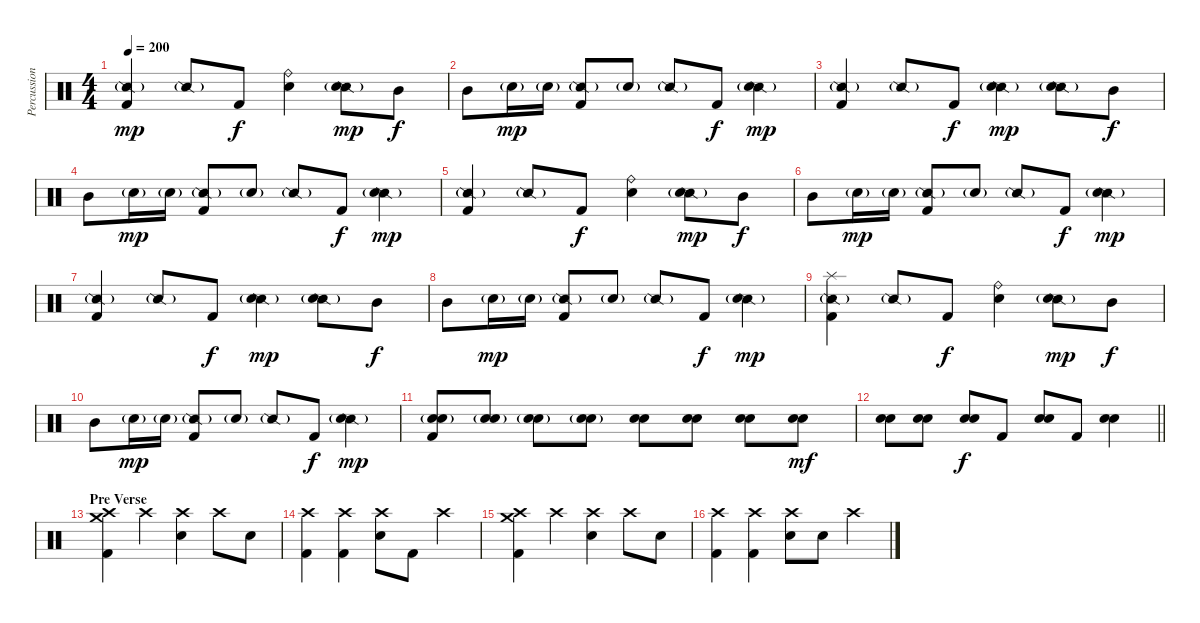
\track ("Percussion" "Percussion") {instrument percussion}
\staff {score}
\articulation defaults
\ts (4 4)
\tempo 200
\clef neutral
\ks c
("Snare (side stick) 2"{g} "Kick (hit) 2").4{dy mp} "Snare (side stick) 2"{g}.8 "Kick (hit) 2".8{dy f} ("Ride (bell)" "Electric Snare (hit)").4 ("Snare (side stick) 2"{g} "Electric Snare (hit)").8{dy mp} "Mid Tom (hit)".8{dy f} |
"Mid Tom (hit)".8 "Electric Snare (hit)"{g}.16{dy mp} "Electric Snare (hit)"{g}.16 ("Snare (side stick) 2"{g} "Kick (hit) 2").8 "Electric Snare (hit)"{g}.8 "Snare (side stick) 2"{g}.8 "Kick (hit) 2".8{dy f} ("Snare (side stick) 2"{g} "Electric Snare (hit)").4{dy mp} |
("Snare (side stick) 2"{g} "Kick (hit) 2").4 "Snare (side stick) 2"{g}.8 "Kick (hit) 2".8{dy f} ("Snare (side stick) 2"{g} "Electric Snare (hit)").4{dy mp} ("Snare (side stick) 2"{g} "Electric Snare (hit)").8 "Mid Tom (hit)".8{dy f} |
"Mid Tom (hit)".8 "Electric Snare (hit)"{g}.16{dy mp} "Electric Snare (hit)"{g}.16 ("Snare (side stick) 2"{g} "Kick (hit) 2").8 "Electric Snare (hit)"{g}.8 "Snare (side stick) 2"{g}.8 "Kick (hit) 2".8{dy f} ("Snare (side stick) 2"{g} "Electric Snare (hit)").4{dy mp} |
("Snare (side stick) 2"{g} "Kick (hit) 2").4 "Snare (side stick) 2"{g}.8 "Kick (hit) 2".8{dy f} ("Ride (bell)" "Electric Snare (hit)").4 ("Snare (side stick) 2"{g} "Electric Snare (hit)").8{dy mp} "Mid Tom (hit)".8{dy f} |
"Mid Tom (hit)".8 "Electric Snare (hit)"{g}.16{dy mp} "Electric Snare (hit)"{g}.16 ("Snare (side stick) 2"{g} "Kick (hit) 2").8 "Electric Snare (hit)"{g}.8 "Snare (side stick) 2"{g}.8 "Kick (hit) 2".8{dy f} ("Snare (side stick) 2"{g} "Electric Snare (hit)").4{dy mp} |
("Snare (side stick) 2"{g} "Kick (hit) 2").4 "Snare (side stick) 2"{g}.8 "Kick (hit) 2".8{dy f} ("Snare (side stick) 2"{g} "Electric Snare (hit)").4{dy mp} ("Snare (side stick) 2"{g} "Electric Snare (hit)").8 "Mid Tom (hit)".8{dy f} |
"Mid Tom (hit)".8 "Electric Snare (hit)"{g}.16{dy mp} "Electric Snare (hit)"{g}.16 ("Snare (side stick) 2"{g} "Kick (hit) 2").8 "Electric Snare (hit)"{g}.8 "Snare (side stick) 2"{g}.8 "Kick (hit) 2".8{dy f} ("Snare (side stick) 2"{g} "Electric Snare (hit)").4{dy mp} |
("Snare (side stick) 2"{g} "Splash (hit)" "Kick (hit) 2").4 "Snare (side stick) 2"{g}.8 "Kick (hit) 2".8{dy f} ("Ride (bell)" "Electric Snare (hit)").4 ("Snare (side stick) 2"{g} "Electric Snare (hit)").8{dy mp} "Mid Tom (hit)".8{dy f} |
"Mid Tom (hit)".8 "Electric Snare (hit)"{g}.16{dy mp} "Electric Snare (hit)"{g}.16 ("Snare (side stick) 2"{g} "Kick (hit) 2").8 "Electric Snare (hit)"{g}.8 "Snare (side stick) 2"{g}.8 "Kick (hit) 2".8{dy f} ("Snare (side stick) 2"{g} "Electric Snare (hit)").4{dy mp} |
("Electric Snare (hit)"{g} "Electric Snare (hit)"{g} "Kick (hit) 2").8 ("Electric Snare (hit)"{g} "Electric Snare (hit)"{g}).8 ("Electric Snare (hit)"{g} "Electric Snare (hit)"{g}).8 ("Electric Snare (hit)"{g} "Electric Snare (hit)"{g}).8 ("Electric Snare (hit)" "Electric Snare (hit)").8 ("Electric Snare (hit)" "Electric Snare (hit)").8 ("Electric Snare (hit)" "Electric Snare (hit)").8 ("Electric Snare (hit)" "Electric Snare (hit)").8{dy mf} |
\barLineRight lightlight
("Electric Snare (hit)" "Electric Snare (hit)").8 ("Electric Snare (hit)" "Electric Snare (hit)").8 ("Electric Snare (hit)" "Electric Snare (hit)").8{dy f} "Kick (hit) 2".8 ("Electric Snare (hit)" "Electric Snare (hit)").8 "Kick (hit) 2".8 ("Electric Snare (hit)" "Electric Snare (hit)").4 |
\section ("" "Pre Verse")
("Crash medium (hit)" "Crash high (hit)" "Kick (hit) 2").4 "Crash high (hit)".4 ("Crash high (hit)" "Electric Snare (hit)").4 "Crash high (hit)".8 "Electric Snare (hit)".8 |
("Crash high (hit)" "Kick (hit) 2").4 ("Crash high (hit)" "Kick (hit) 2").4 ("Crash high (hit)" "Electric Snare (hit)").8 "Kick (hit) 2".8 "Crash high (hit)".4 |
("Crash medium (hit)" "Crash high (hit)" "Kick (hit) 2").4 "Crash high (hit)".4 ("Crash high (hit)" "Electric Snare (hit)").4 "Crash high (hit)".8 "Electric Snare (hit)".8 |
("Crash high (hit)" "Kick (hit) 2").4 ("Crash high (hit)" "Kick (hit) 2").4 ("Crash high (hit)" "Electric Snare (hit)").8 "Electric Snare (hit)".8 "Crash high (hit)".4
